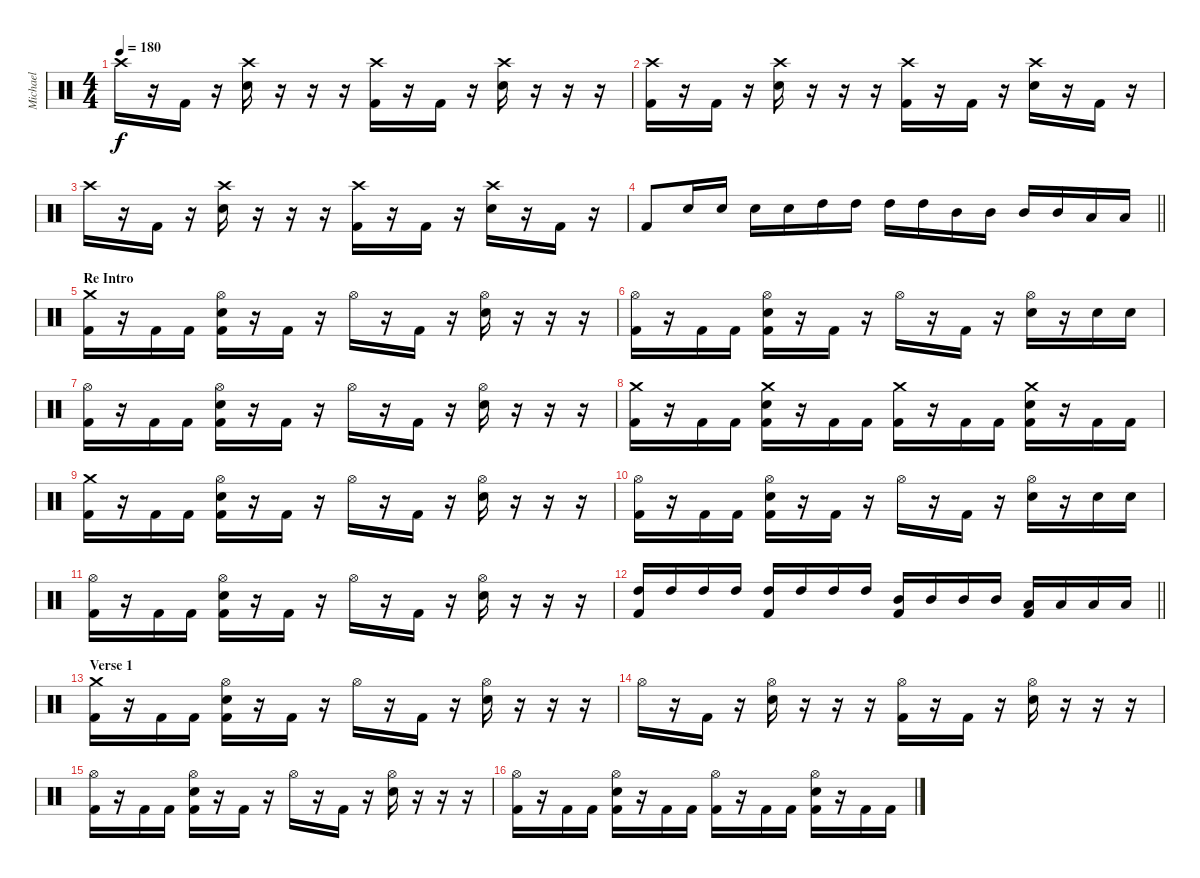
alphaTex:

\track ("Michael" "Michael") {instrument percussion}
\staff {score}
\articulation defaults
\ts (4 4)
\tempo 180
\clef neutral
\ks c "Crash high (hit)".16{dy f}
r.16 "Kick (hit) 2".16 r.16 ("Crash high (hit)" "Electric Snare (hit)").16 r.16 r.16 r.16 ("Crash high (hit)" "Kick (hit) 2").16 r.16 "Kick (hit) 2".16 r.16 ("Crash high (hit)" "Electric Snare (hit)").16 r.16 r.16 r.16 |
("Crash high (hit)" "Kick (hit) 2").16 r.16 "Kick (hit) 2".16 r.16 ("Crash high (hit)" "Electric Snare (hit)").16 r.16 r.16 r.16 ("Crash high (hit)" "Kick (hit) 2").16 r.16 "Kick (hit) 2".16 r.16 ("Crash high (hit)" "Electric Snare (hit)").16 r.16 "Kick (hit) 2".16 r.16 |
"Crash high (hit)".16 r.16 "Kick (hit) 2".16 r.16 ("Crash high (hit)" "Electric Snare (hit)").16 r.16 r.16 r.16 ("Crash high (hit)" "Kick (hit) 2").16 r.16 "Kick (hit) 2".16 r.16 ("Crash high (hit)" "Electric Snare (hit)").16 r.16 "Kick (hit) 2".16 r.16 |
\barLineRight lightlight "Kick (hit) 2".8 "Electric Snare (hit)".16 "Electric Snare (hit)".16 "Electric Snare (hit)".16 "Electric Snare (hit)".16 "High Tom (hit)".16 "High Tom (hit)".16 "High Tom (hit)".16 "High Tom (hit)".16 "Mid Tom (hit)".16 "Mid Tom (hit)".16 "Mid Tom (hit)".16 "Mid Tom (hit)".16 "Low Tom (hit)".16 "Low Tom (hit)".16
|
\section ("" "Re Intro")
("Crash medium (hit)" "Kick (hit) 2").16 r.16 "Kick (hit) 2".16 "Kick (hit) 2".16 ("Hi-Hat (open)" "Electric Snare (hit)" "Kick (hit) 2").16 r.16 "Kick (hit) 2".16 r.16 "Hi-Hat (open)".16 r.16 "Kick (hit) 2".16 r.16 ("Hi-Hat (open)" "Electric Snare (hit)").16 r.16 r.16 r.16 |
("Hi-Hat (open)" "Kick (hit) 2").16 r.16 "Kick (hit) 2".16 "Kick (hit) 2".16 ("Hi-Hat (open)" "Electric Snare (hit)" "Kick (hit) 2").16 r.16 "Kick (hit) 2".16 r.16 "Hi-Hat (open)".16 r.16 "Kick (hit) 2".16 r.16 ("Hi-Hat (open)" "Electric Snare (hit)").16 r.16 "Electric Snare (hit)".16 "Electric Snare (hit)".16 |
("Hi-Hat (open)" "Kick (hit) 2").16 r.16 "Kick (hit) 2".16 "Kick (hit) 2".16 ("Hi-Hat (open)" "Electric Snare (hit)" "Kick (hit) 2").16 r.16 "Kick (hit) 2".16 r.16 "Hi-Hat (open)".16 r.16 "Kick (hit) 2".16 r.16 ("Hi-Hat (open)" "Electric Snare (hit)").16 r.16 r.16 r.16 |
("Crash medium (hit)" "Kick (hit) 2").16 r.16 "Kick (hit) 2".16 "Kick (hit) 2".16 ("Crash medium (hit)" "Electric Snare (hit)" "Kick (hit) 2").16 r.16 "Kick (hit) 2".16 "Kick (hit) 2".16 ("Crash medium (hit)" "Kick (hit) 2").16 r.16 "Kick (hit) 2".16 "Kick (hit) 2".16 ("Crash medium (hit)" "Electric Snare (hit)" "Kick (hit) 2").16 r.16 "Kick (hit) 2".16 "Kick (hit) 2".16 |
("Crash medium (hit)" "Kick (hit) 2").16 r.16 "Kick (hit) 2".16 "Kick (hit) 2".16 ("Hi-Hat (open)" "Electric Snare (hit)" "Kick (hit) 2").16 r.16 "Kick (hit) 2".16 r.16 "Hi-Hat (open)".16 r.16 "Kick (hit) 2".16 r.16 ("Hi-Hat (open)" "Electric Snare (hit)").16 r.16 r.16 r.16 |
("Hi-Hat (open)" "Kick (hit) 2").16 r.16 "Kick (hit) 2".16 "Kick (hit) 2".16 ("Hi-Hat (open)" "Electric Snare (hit)" "Kick (hit) 2").16 r.16 "Kick (hit) 2".16 r.16 "Hi-Hat (open)".16 r.16 "Kick (hit) 2".16 r.16 ("Hi-Hat (open)" "Electric Snare (hit)").16 r.16 "Electric Snare (hit)".16 "Electric Snare (hit)".16 |
("Hi-Hat (open)" "Kick (hit) 2").16 r.16 "Kick (hit) 2".16 "Kick (hit) 2".16 ("Hi-Hat (open)" "Electric Snare (hit)" "Kick (hit) 2").16 r.16 "Kick (hit) 2".16 r.16 "Hi-Hat (open)".16 r.16 "Kick (hit) 2".16 r.16 ("Hi-Hat (open)" "Electric Snare (hit)").16 r.16 r.16 r.16 |
\barLineRight lightlight
("High Tom (hit)" "Kick (hit) 2").16 "High Tom (hit)".16 "High Tom (hit)".16 "High Tom (hit)".16 ("High Tom (hit)" "Kick (hit) 2").16 "High Tom (hit)".16 "High Tom (hit)".16 "High Tom (hit)".16 ("Mid Tom (hit)" "Kick (hit) 2").16 "Mid Tom (hit)".16 "Mid Tom (hit)".16 "Mid Tom (hit)".16 ("Low Tom (hit)" "Kick (hit) 2").16 "Low Tom (hit)".16 "Low Tom (hit)".16 "Low Tom (hit)".16 |
\section ("" "Verse 1")
("Crash medium (hit)" "Kick (hit) 2").16 r.16 "Kick (hit) 2".16 "Kick (hit) 2".16 ("Hi-Hat (open)" "Electric Snare (hit)" "Kick (hit) 2").16 r.16 "Kick (hit) 2".16 r.16 "Hi-Hat (open)".16 r.16 "Kick (hit) 2".16 r.16 ("Hi-Hat (open)" "Electric Snare (hit)").16 r.16 r.16 r.16 |
"Hi-Hat (open)".16 r.16 "Kick (hit) 2".16 r.16 ("Hi-Hat (open)" "Electric Snare (hit)").16 r.16 r.16 r.16 ("Hi-Hat (open)" "Kick (hit) 2").16 r.16 "Kick (hit) 2".16 r.16 ("Hi-Hat (open)" "Electric Snare (hit)").16 r.16 r.16 r.16 |
("Hi-Hat (open)" "Kick (hit) 2").16 r.16 "Kick (hit) 2".16 "Kick (hit) 2".16 ("Hi-Hat (open)" "Electric Snare (hit)" "Kick (hit) 2").16 r.16 "Kick (hit) 2".16 r.16 "Hi-Hat (open)".16 r.16 "Kick (hit) 2".16 r.16 ("Hi-Hat (open)" "Electric Snare (hit)").16 r.16 r.16 r.16 |
("Hi-Hat (open)" "Kick (hit) 2").16 r.16 "Kick (hit) 2".16 "Kick (hit) 2".16 ("Hi-Hat (open)" "Electric Snare (hit)" "Kick (hit) 2").16 r.16 "Kick (hit) 2".16 "Kick (hit) 2".16 ("Hi-Hat (open)" "Kick (hit) 2").16 r.16 "Kick (hit) 2".16 "Kick (hit) 2".16 ("Hi-Hat (open)" "Electric Snare (hit)" "Kick (hit) 2").16 r.16 "Kick (hit) 2".16 "Kick (hit) 2".16
